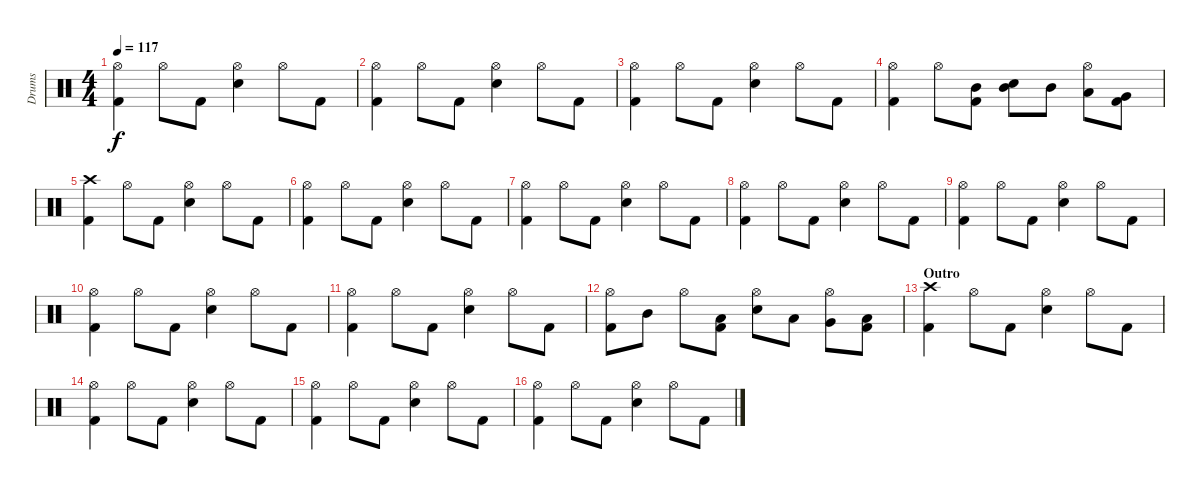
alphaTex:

\track ("Drums" "Drums") {instrument percussion}
\staff {score}
\articulation defaults
\ts (4 4)
\tempo 117
\clef neutral
\ks c
("Kick (hit) 2" "Hi-Hat (open)").4{dy f} "Hi-Hat (open)".8 "Kick (hit) 2".8 ("Snare (hit) 2" "Hi-Hat (open)").4 "Hi-Hat (open)".8 "Kick (hit) 2".8 |
("Kick (hit) 2" "Hi-Hat (open)").4 "Hi-Hat (open)".8 "Kick (hit) 2".8 ("Snare (hit) 2" "Hi-Hat (open)").4 "Hi-Hat (open)".8 "Kick (hit) 2".8 |
("Kick (hit) 2" "Hi-Hat (open)").4 "Hi-Hat (open)".8 "Kick (hit) 2".8 ("Snare (hit) 2" "Hi-Hat (open)").4 "Hi-Hat (open)".8 "Kick (hit) 2".8 |
("Kick (hit) 2" "Hi-Hat (open)").4 "Hi-Hat (open)".8 ("Kick (hit) 2" "Mid Tom (hit)").8 ("Snare (hit) 2" "Mid Tom (hit)").8 "Mid Tom (hit)".8 ("Low Tom (hit)" "Hi-Hat (open)").8 ("Kick (hit) 2" "Very Low Tom (hit)").8 |
("Kick (hit) 2" "Crash high (hit)").4 "Hi-Hat (open)".8 "Kick (hit) 2".8 ("Snare (hit) 2" "Hi-Hat (open)").4 "Hi-Hat (open)".8 "Kick (hit) 2".8 |
("Kick (hit) 2" "Hi-Hat (open)").4 "Hi-Hat (open)".8 "Kick (hit) 2".8 ("Snare (hit) 2" "Hi-Hat (open)").4 "Hi-Hat (open)".8 "Kick (hit) 2".8 |
("Kick (hit) 2" "Hi-Hat (open)").4 "Hi-Hat (open)".8 "Kick (hit) 2".8 ("Snare (hit) 2" "Hi-Hat (open)").4 "Hi-Hat (open)".8 "Kick (hit) 2".8 |
("Kick (hit) 2" "Hi-Hat (open)").4 "Hi-Hat (open)".8 "Kick (hit) 2".8 ("Snare (hit) 2" "Hi-Hat (open)").4 "Hi-Hat (open)".8 "Kick (hit) 2".8 |
("Kick (hit) 2" "Hi-Hat (open)").4 "Hi-Hat (open)".8 "Kick (hit) 2".8 ("Snare (hit) 2" "Hi-Hat (open)").4 "Hi-Hat (open)".8 "Kick (hit) 2".8 |
("Kick (hit) 2" "Hi-Hat (open)").4 "Hi-Hat (open)".8 "Kick (hit) 2".8 ("Snare (hit) 2" "Hi-Hat (open)").4 "Hi-Hat (open)".8 "Kick (hit) 2".8 |
("Kick (hit) 2" "Hi-Hat (open)").4 "Hi-Hat (open)".8 "Kick (hit) 2".8 ("Snare (hit) 2" "Hi-Hat (open)").4 "Hi-Hat (open)".8 "Kick (hit) 2".8 |
("Kick (hit) 2" "Hi-Hat (open)").8 "Mid Tom (hit)".8 "Hi-Hat (open)".8 ("Kick (hit) 2" "Low Tom (hit)").8 ("Snare (hit) 2" "Hi-Hat (open)").8 "Low Tom (hit)".8 ("Very Low Tom (hit)" "Hi-Hat (open)").8 ("Kick (hit) 2" "Low Floor Tom (hit)").8 |
\section ("" "Outro")
("Kick (hit) 2" "Crash high (hit)").4 "Hi-Hat (open)".8 "Kick (hit) 2".8 ("Snare (hit) 2" "Hi-Hat (open)").4 "Hi-Hat (open)".8 "Kick (hit) 2".8 |
("Kick (hit) 2" "Hi-Hat (open)").4 "Hi-Hat (open)".8 "Kick (hit) 2".8 ("Snare (hit) 2" "Hi-Hat (open)").4 "Hi-Hat (open)".8 "Kick (hit) 2".8 |
("Kick (hit) 2" "Hi-Hat (open)").4 "Hi-Hat (open)".8 "Kick (hit) 2".8 ("Snare (hit) 2" "Hi-Hat (open)").4 "Hi-Hat (open)".8 "Kick (hit) 2".8 |
("Kick (hit) 2" "Hi-Hat (open)").4 "Hi-Hat (open)".8 "Kick (hit) 2".8 ("Snare (hit) 2" "Hi-Hat (open)").4 "Hi-Hat (open)".8 "Kick (hit) 2".8
